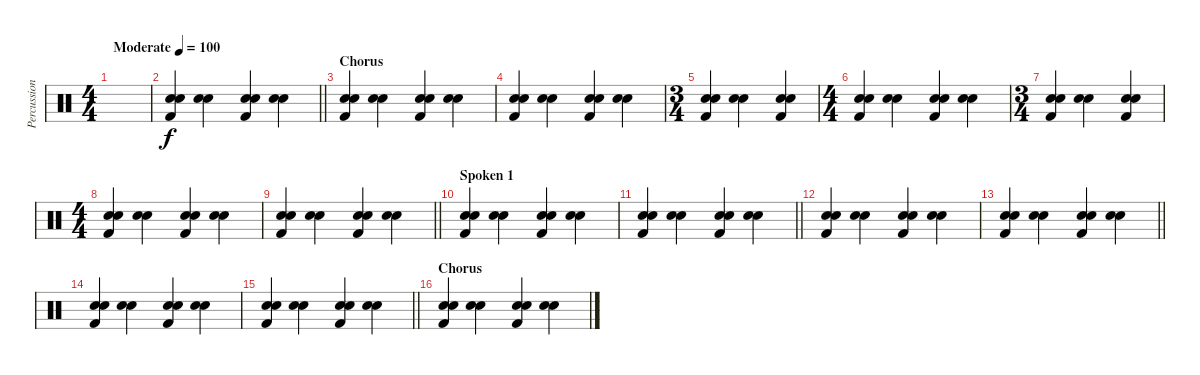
\track ("Percussion" "Percussion") {instrument percussion}
\staff {score}
\articulation defaults
\ts (4 4)
\tempo (100 "Moderate")
\clef neutral
\ks c
|
\barLineRight lightlight
("Snare (hit) 2" "Hand Clap (hit)" "Kick (hit) 2").4 ("Snare (hit) 2" "Hand Clap (hit)").4 ("Snare (hit) 2" "Hand Clap (hit)" "Kick (hit) 2").4 ("Snare (hit) 2" "Hand Clap (hit)").4 |
\section ("" "Chorus")
("Snare (hit) 2" "Hand Clap (hit)" "Kick (hit) 2").4 ("Snare (hit) 2" "Hand Clap (hit)").4 ("Snare (hit) 2" "Hand Clap (hit)" "Kick (hit) 2").4 ("Snare (hit) 2" "Hand Clap (hit)").4 |
("Snare (hit) 2" "Hand Clap (hit)" "Kick (hit) 2").4 ("Snare (hit) 2" "Hand Clap (hit)").4 ("Snare (hit) 2" "Hand Clap (hit)" "Kick (hit) 2").4 ("Snare (hit) 2" "Hand Clap (hit)").4 |
\ts (3 4)
("Snare (hit) 2" "Hand Clap (hit)" "Kick (hit) 2").4 ("Snare (hit) 2" "Hand Clap (hit)").4 ("Snare (hit) 2" "Hand Clap (hit)" "Kick (hit) 2").4 |
\ts (4 4)
("Snare (hit) 2" "Hand Clap (hit)" "Kick (hit) 2").4 ("Snare (hit) 2" "Hand Clap (hit)").4 ("Snare (hit) 2" "Hand Clap (hit)" "Kick (hit) 2").4 ("Snare (hit) 2" "Hand Clap (hit)").4 |
\ts (3 4)
("Snare (hit) 2" "Hand Clap (hit)" "Kick (hit) 2").4 ("Snare (hit) 2" "Hand Clap (hit)").4 ("Snare (hit) 2" "Hand Clap (hit)" "Kick (hit) 2").4 |
\ts (4 4)
("Snare (hit) 2" "Hand Clap (hit)" "Kick (hit) 2").4 ("Snare (hit) 2" "Hand Clap (hit)").4 ("Snare (hit) 2" "Hand Clap (hit)" "Kick (hit) 2").4 ("Snare (hit) 2" "Hand Clap (hit)").4 |
\barLineRight lightlight
("Snare (hit) 2" "Hand Clap (hit)" "Kick (hit) 2").4 ("Snare (hit) 2" "Hand Clap (hit)").4 ("Snare (hit) 2" "Hand Clap (hit)" "Kick (hit) 2").4 ("Snare (hit) 2" "Hand Clap (hit)").4 |
\section ("" "Spoken 1")
("Snare (hit) 2" "Hand Clap (hit)" "Kick (hit) 2").4 ("Snare (hit) 2" "Hand Clap (hit)").4 ("Snare (hit) 2" "Hand Clap (hit)" "Kick (hit) 2").4 ("Snare (hit) 2" "Hand Clap (hit)").4 |
\barLineRight lightlight
("Snare (hit) 2" "Hand Clap (hit)" "Kick (hit) 2").4 ("Snare (hit) 2" "Hand Clap (hit)").4 ("Snare (hit) 2" "Hand Clap (hit)" "Kick (hit) 2").4 ("Snare (hit) 2" "Hand Clap (hit)").4 |
("Snare (hit) 2" "Hand Clap (hit)" "Kick (hit) 2").4 ("Snare (hit) 2" "Hand Clap (hit)").4 ("Snare (hit) 2" "Hand Clap (hit)" "Kick (hit) 2").4 ("Snare (hit) 2" "Hand Clap (hit)").4 |
\barLineRight lightlight
("Snare (hit) 2" "Hand Clap (hit)" "Kick (hit) 2").4 ("Snare (hit) 2" "Hand Clap (hit)").4 ("Snare (hit) 2" "Hand Clap (hit)" "Kick (hit) 2").4 ("Snare (hit) 2" "Hand Clap (hit)").4 |
("Snare (hit) 2" "Hand Clap (hit)" "Kick (hit) 2").4 ("Snare (hit) 2" "Hand Clap (hit)").4 ("Snare (hit) 2" "Hand Clap (hit)" "Kick (hit) 2").4 ("Snare (hit) 2" "Hand Clap (hit)").4 |
\barLineRight lightlight
("Snare (hit) 2" "Hand Clap (hit)" "Kick (hit) 2").4 ("Snare (hit) 2" "Hand Clap (hit)").4 ("Snare (hit) 2" "Hand Clap (hit)" "Kick (hit) 2").4 ("Snare (hit) 2" "Hand Clap (hit)").4 |
\section ("" "Chorus")
("Snare (hit) 2" "Hand Clap (hit)" "Kick (hit) 2").4 ("Snare (hit) 2" "Hand Clap (hit)").4 ("Snare (hit) 2" "Hand Clap (hit)" "Kick (hit) 2").4 ("Snare (hit) 2" "Hand Clap (hit)").4
